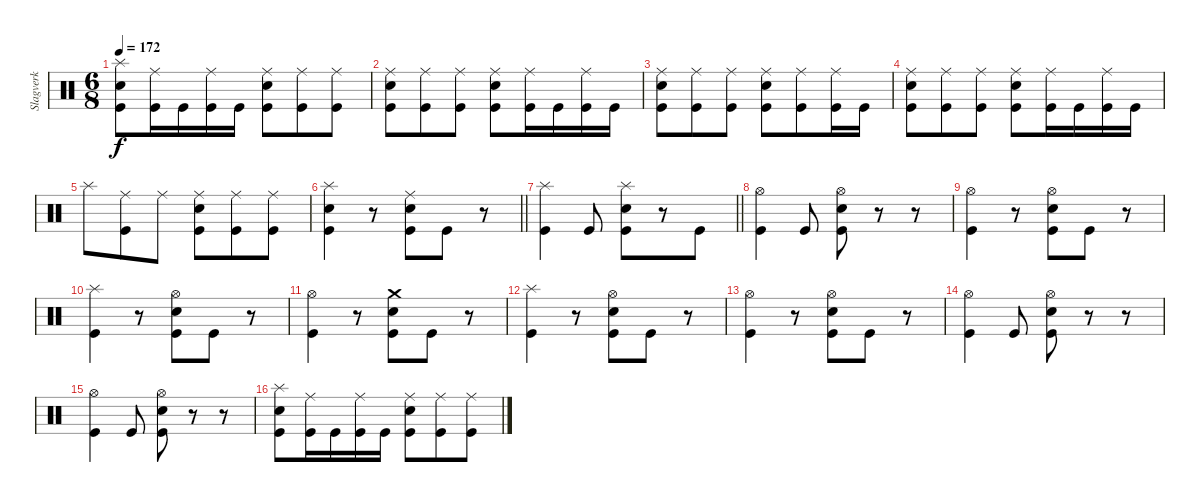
\track ("Slagverk" "Slagverk") {instrument percussion}
\staff {score}
\articulation defaults
\ts (6 8)
\tempo 172
\clef neutral
\ks c
("Splash (hit)" "Snare (hit) 2" "Kick (hit)").8{dy f} ("Ride (middle)" "Kick (hit)").16 "Kick (hit)".16 ("Ride (middle)" "Kick (hit)").16 "Kick (hit)".16 ("Ride (middle)" "Snare (hit) 2" "Kick (hit)").8 ("Ride (middle)" "Kick (hit)").8 ("Ride (middle)" "Kick (hit)").8 |
("Ride (middle)" "Snare (hit) 2" "Kick (hit)").8 ("Ride (middle)" "Kick (hit)").8 ("Ride (middle)" "Kick (hit)").8 ("Ride (middle)" "Snare (hit) 2" "Kick (hit)").8 ("Ride (middle)" "Kick (hit)").16 "Kick (hit)".16 ("Ride (middle)" "Kick (hit)").16 "Kick (hit)".16 |
("Ride (middle)" "Snare (hit) 2" "Kick (hit)").8 ("Ride (middle)" "Kick (hit)").8 ("Ride (middle)" "Kick (hit)").8 ("Ride (middle)" "Snare (hit) 2" "Kick (hit)").8 ("Ride (middle)" "Kick (hit)").8 ("Ride (middle)" "Kick (hit)").16 "Kick (hit)".16 |
("Ride (middle)" "Snare (hit) 2" "Kick (hit)").8 ("Ride (middle)" "Kick (hit)").8 ("Ride (middle)" "Kick (hit)").8 ("Ride (middle)" "Snare (hit) 2" "Kick (hit)").8 ("Ride (middle)" "Kick (hit)").16 "Kick (hit)".16 ("Ride (middle)" "Kick (hit)").16 "Kick (hit)".16 |
"Splash (hit)".8 ("Ride (middle)" "Kick (hit)").8 "Ride (middle)".8 ("Ride (middle)" "Snare (hit) 2" "Kick (hit)").8 ("Ride (middle)" "Kick (hit)").8 ("Ride (middle)" "Kick (hit)").8 |
\barLineRight lightlight
("Splash (hit)" "Snare (hit) 2" "Kick (hit)").4 r.8 ("Ride (middle)" "Snare (hit) 2" "Kick (hit)").8 "Kick (hit)".8 r.8 |
\barLineRight lightlight
("Splash (hit)" "Kick (hit)").4 "Kick (hit)".8 ("Splash (hit)" "Snare (hit) 2" "Kick (hit)").8 r.8 "Kick (hit)".8 |
("Hi-Hat (open)" "Kick (hit)").4 "Kick (hit)".8 ("Hi-Hat (open)" "Snare (hit) 2" "Kick (hit)").8 r.8 r.8 |
("Hi-Hat (open)" "Kick (hit)").4 r.8 ("Hi-Hat (open)" "Snare (hit) 2" "Kick (hit)").8 "Kick (hit)".8 r.8 |
("Splash (hit)" "Kick (hit)").4 r.8 ("Hi-Hat (open)" "Snare (hit) 2" "Kick (hit)").8 "Kick (hit)".8 r.8 |
("Hi-Hat (open)" "Kick (hit)").4 r.8 ("Crash medium (hit)" "Snare (hit) 2" "Kick (hit)").8 "Kick (hit)".8 r.8 |
("Splash (hit)" "Kick (hit)").4 r.8 ("Hi-Hat (open)" "Snare (hit) 2" "Kick (hit)").8 "Kick (hit)".8 r.8 |
("Hi-Hat (open)" "Kick (hit)").4 r.8 ("Hi-Hat (open)" "Snare (hit) 2" "Kick (hit)").8 "Kick (hit)".8 r.8 |
("Hi-Hat (open)" "Kick (hit)").4 "Kick (hit)".8 ("Hi-Hat (open)" "Snare (hit) 2" "Kick (hit)").8 r.8 r.8 |
("Hi-Hat (open)" "Kick (hit)").4 "Kick (hit)".8 ("Hi-Hat (open)" "Snare (hit) 2" "Kick (hit)").8 r.8 r.8 |
("Splash (hit)" "Snare (hit) 2" "Kick (hit)").8 ("Ride (middle)" "Kick (hit)").16 "Kick (hit)".16 ("Ride (middle)" "Kick (hit)").16 "Kick (hit)".16 ("Ride (middle)" "Snare (hit) 2" "Kick (hit)").8 ("Ride (middle)" "Kick (hit)").8 ("Ride (middle)" "Kick (hit)").8
